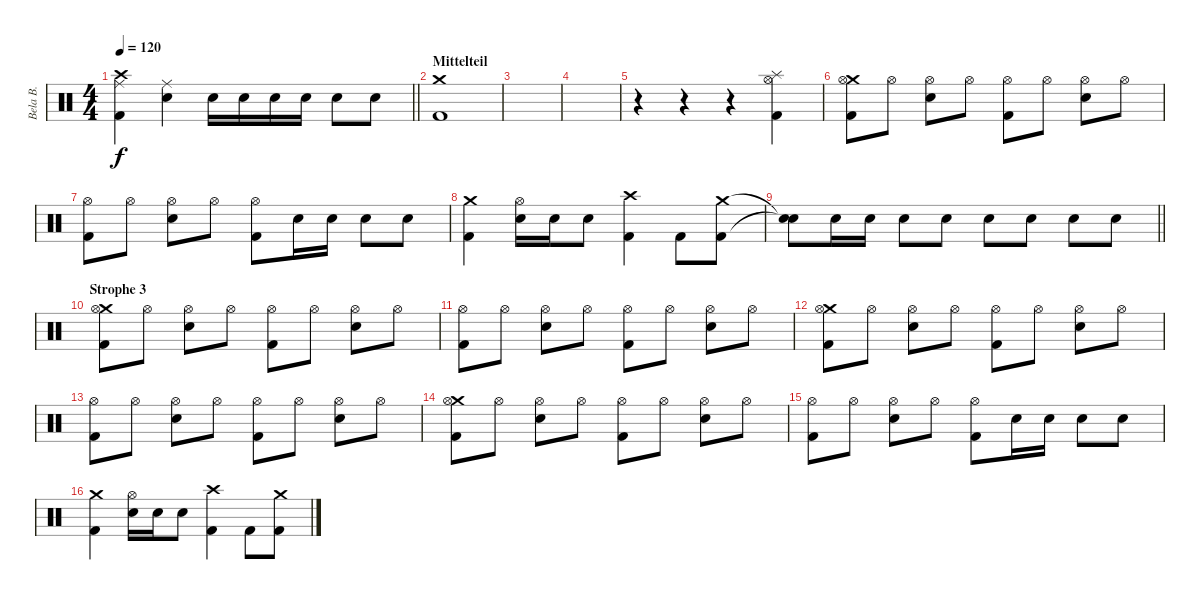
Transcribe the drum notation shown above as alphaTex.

\track ("Bela B." "Bela B.") {instrument percussion}
\staff {score}
\articulation defaults
\ts (4 4)
\tempo 120
\clef neutral
\barLineRight lightlight
\ks c
("Crash high (hit)" "Ride (middle)" "Kick (hit) 2").4{dy f} ("Ride (middle)" "Snare (hit) 2").4 "Snare (hit) 2".16 "Snare (hit) 2".16 "Snare (hit) 2".16 "Snare (hit) 2".16 "Snare (hit) 2".8 "Snare (hit) 2".8 |
\section ("" "Mittelteil")
("Crash medium (hit)" "Kick (hit) 2").1 |
|
|
r.4 r.4 r.4 ("Hi-Hat (open)" "Splash (hit)" "Kick (hit) 2").4 |
("Crash medium (hit)" "Hi-Hat (open)" "Kick (hit) 2").8 "Hi-Hat (open)".8 ("Hi-Hat (open)" "Snare (hit) 2").8 "Hi-Hat (open)".8 ("Hi-Hat (open)" "Kick (hit) 2").8 "Hi-Hat (open)".8 ("Hi-Hat (open)" "Snare (hit) 2").8 "Hi-Hat (open)".8 |
("Hi-Hat (open)" "Kick (hit) 2").8 "Hi-Hat (open)".8 ("Hi-Hat (open)" "Snare (hit) 2").8 "Hi-Hat (open)".8 ("Hi-Hat (open)" "Kick (hit) 2").8 "Snare (hit) 2".16 "Snare (hit) 2".16 "Snare (hit) 2".8 "Snare (hit) 2".8 |
("Crash medium (hit)" "Kick (hit) 2").4 ("Hi-Hat (open)" "Snare (hit) 2").16 "Snare (hit) 2".16 "Snare (hit) 2".8 ("Crash high (hit)" "Kick (hit) 2").4 "Kick (hit) 2".8 ("Crash medium (hit)" "Kick (hit) 2").8 |
\barLineRight lightlight
("Snare (hit)"{t} "Snare (hit)"{t}).8 "Snare (hit) 2".16 "Snare (hit) 2".16 "Snare (hit) 2".8 "Snare (hit) 2".8 "Snare (hit) 2".8 "Snare (hit) 2".8 "Snare (hit) 2".8 "Snare (hit) 2".8 |
\section ("" "Strophe 3")
("Crash medium (hit)" "Hi-Hat (open)" "Kick (hit) 2").8 "Hi-Hat (open)".8 ("Hi-Hat (open)" "Snare (hit) 2").8 "Hi-Hat (open)".8 ("Hi-Hat (open)" "Kick (hit) 2").8 "Hi-Hat (open)".8 ("Hi-Hat (open)" "Snare (hit) 2").8 "Hi-Hat (open)".8 |
("Hi-Hat (open)" "Kick (hit) 2").8 "Hi-Hat (open)".8 ("Hi-Hat (open)" "Snare (hit) 2").8 "Hi-Hat (open)".8 ("Hi-Hat (open)" "Kick (hit) 2").8 "Hi-Hat (open)".8 ("Hi-Hat (open)" "Snare (hit) 2").8 "Hi-Hat (open)".8 |
("Crash medium (hit)" "Hi-Hat (open)" "Kick (hit) 2").8 "Hi-Hat (open)".8 ("Hi-Hat (open)" "Snare (hit) 2").8 "Hi-Hat (open)".8 ("Hi-Hat (open)" "Kick (hit) 2").8 "Hi-Hat (open)".8 ("Hi-Hat (open)" "Snare (hit) 2").8 "Hi-Hat (open)".8 |
("Hi-Hat (open)" "Kick (hit) 2").8 "Hi-Hat (open)".8 ("Hi-Hat (open)" "Snare (hit) 2").8 "Hi-Hat (open)".8 ("Hi-Hat (open)" "Kick (hit) 2").8 "Hi-Hat (open)".8 ("Hi-Hat (open)" "Snare (hit) 2").8 "Hi-Hat (open)".8 |
("Crash medium (hit)" "Hi-Hat (open)" "Kick (hit) 2").8 "Hi-Hat (open)".8 ("Hi-Hat (open)" "Snare (hit) 2").8 "Hi-Hat (open)".8 ("Hi-Hat (open)" "Kick (hit) 2").8 "Hi-Hat (open)".8 ("Hi-Hat (open)" "Snare (hit) 2").8 "Hi-Hat (open)".8 |
("Hi-Hat (open)" "Kick (hit) 2").8 "Hi-Hat (open)".8 ("Hi-Hat (open)" "Snare (hit) 2").8 "Hi-Hat (open)".8 ("Hi-Hat (open)" "Kick (hit) 2").8 "Snare (hit) 2".16 "Snare (hit) 2".16 "Snare (hit) 2".8 "Snare (hit) 2".8 |
("Crash medium (hit)" "Kick (hit) 2").4 ("Hi-Hat (open)" "Snare (hit) 2").16 "Snare (hit) 2".16 "Snare (hit) 2".8 ("Crash high (hit)" "Kick (hit) 2").4 "Kick (hit) 2".8 ("Crash medium (hit)" "Kick (hit) 2").8
